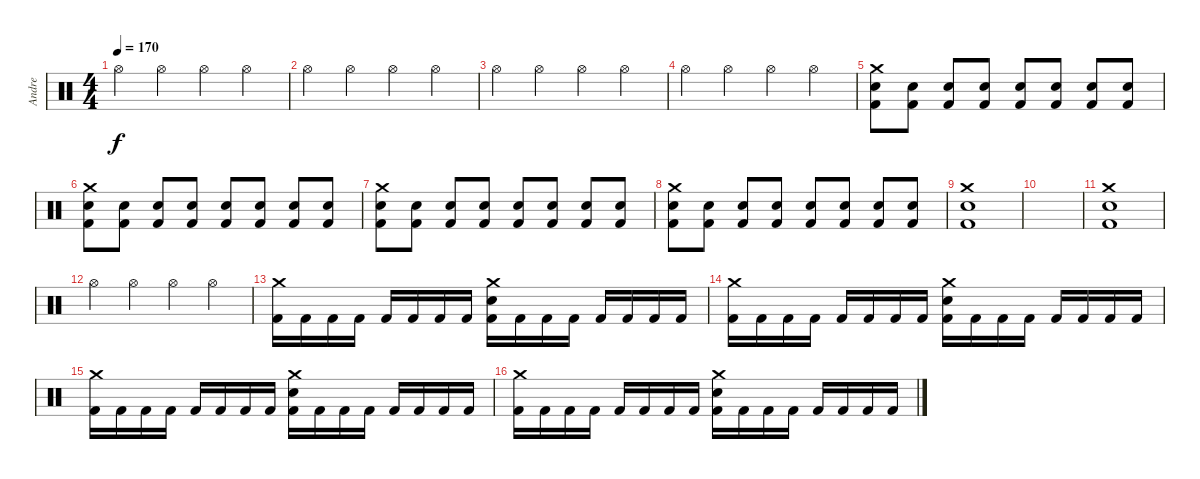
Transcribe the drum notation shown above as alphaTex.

\track ("Andre" "Andre") {instrument percussion}
\staff {score}
\articulation defaults
\ts (4 4)
\tempo 170
\clef neutral
\ks c "Hi-Hat (open)".4{dy f} "Hi-Hat (open)".4 "Hi-Hat (open)".4 "Hi-Hat (open)".4
|
"Hi-Hat (open)".4 "Hi-Hat (open)".4 "Hi-Hat (open)".4 "Hi-Hat (open)".4 |
"Hi-Hat (open)".4 "Hi-Hat (open)".4 "Hi-Hat (open)".4 "Hi-Hat (open)".4 |
"Hi-Hat (open)".4 "Hi-Hat (open)".4 "Hi-Hat (open)".4 "Hi-Hat (open)".4 |
("Crash medium (hit)" "Snare (hit) 2" "Kick (hit) 2").8 ("Snare (hit) 2" "Kick (hit) 2").8 ("Snare (hit) 2" "Kick (hit) 2").8 ("Snare (hit) 2" "Kick (hit) 2").8 ("Snare (hit) 2" "Kick (hit) 2").8 ("Snare (hit) 2" "Kick (hit) 2").8 ("Snare (hit) 2" "Kick (hit) 2").8 ("Snare (hit) 2" "Kick (hit) 2").8 |
("Crash medium (hit)" "Snare (hit) 2" "Kick (hit) 2").8 ("Snare (hit) 2" "Kick (hit) 2").8 ("Snare (hit) 2" "Kick (hit) 2").8 ("Snare (hit) 2" "Kick (hit) 2").8 ("Snare (hit) 2" "Kick (hit) 2").8 ("Snare (hit) 2" "Kick (hit) 2").8 ("Snare (hit) 2" "Kick (hit) 2").8 ("Snare (hit) 2" "Kick (hit) 2").8 |
("Crash medium (hit)" "Snare (hit) 2" "Kick (hit) 2").8 ("Snare (hit) 2" "Kick (hit) 2").8 ("Snare (hit) 2" "Kick (hit) 2").8 ("Snare (hit) 2" "Kick (hit) 2").8 ("Snare (hit) 2" "Kick (hit) 2").8 ("Snare (hit) 2" "Kick (hit) 2").8 ("Snare (hit) 2" "Kick (hit) 2").8 ("Snare (hit) 2" "Kick (hit) 2").8 |
("Crash medium (hit)" "Snare (hit) 2" "Kick (hit) 2").8 ("Snare (hit) 2" "Kick (hit) 2").8 ("Snare (hit) 2" "Kick (hit) 2").8 ("Snare (hit) 2" "Kick (hit) 2").8 ("Snare (hit) 2" "Kick (hit) 2").8 ("Snare (hit) 2" "Kick (hit) 2").8 ("Snare (hit) 2" "Kick (hit) 2").8 ("Snare (hit) 2" "Kick (hit) 2").8 |
("Crash medium (hit)" "Snare (hit) 2" "Kick (hit) 2").1 |
|
("Crash medium (hit)" "Snare (hit) 2" "Kick (hit) 2").1 |
"Hi-Hat (open)".4 "Hi-Hat (open)".4 "Hi-Hat (open)".4 "Hi-Hat (open)".4 |
("Crash medium (hit)" "Kick (hit) 2").16 "Kick (hit) 2".16 "Kick (hit) 2".16 "Kick (hit) 2".16 "Kick (hit) 2".16 "Kick (hit) 2".16 "Kick (hit) 2".16 "Kick (hit) 2".16 ("Crash medium (hit)" "Snare (hit) 2" "Kick (hit) 2").16 "Kick (hit) 2".16 "Kick (hit) 2".16 "Kick (hit) 2".16 "Kick (hit) 2".16 "Kick (hit) 2".16 "Kick (hit) 2".16 "Kick (hit) 2".16 |
("Crash medium (hit)" "Kick (hit) 2").16 "Kick (hit) 2".16 "Kick (hit) 2".16 "Kick (hit) 2".16 "Kick (hit) 2".16 "Kick (hit) 2".16 "Kick (hit) 2".16 "Kick (hit) 2".16 ("Crash medium (hit)" "Snare (hit) 2" "Kick (hit) 2").16 "Kick (hit) 2".16 "Kick (hit) 2".16 "Kick (hit) 2".16 "Kick (hit) 2".16 "Kick (hit) 2".16 "Kick (hit) 2".16 "Kick (hit) 2".16 |
("Crash medium (hit)" "Kick (hit) 2").16 "Kick (hit) 2".16 "Kick (hit) 2".16 "Kick (hit) 2".16 "Kick (hit) 2".16 "Kick (hit) 2".16 "Kick (hit) 2".16 "Kick (hit) 2".16 ("Crash medium (hit)" "Snare (hit) 2" "Kick (hit) 2").16 "Kick (hit) 2".16 "Kick (hit) 2".16 "Kick (hit) 2".16 "Kick (hit) 2".16 "Kick (hit) 2".16 "Kick (hit) 2".16 "Kick (hit) 2".16 |
("Crash medium (hit)" "Kick (hit) 2").16 "Kick (hit) 2".16 "Kick (hit) 2".16 "Kick (hit) 2".16 "Kick (hit) 2".16 "Kick (hit) 2".16 "Kick (hit) 2".16 "Kick (hit) 2".16 ("Crash medium (hit)" "Snare (hit) 2" "Kick (hit) 2").16 "Kick (hit) 2".16 "Kick (hit) 2".16 "Kick (hit) 2".16 "Kick (hit) 2".16 "Kick (hit) 2".16 "Kick (hit) 2".16 "Kick (hit) 2".16
